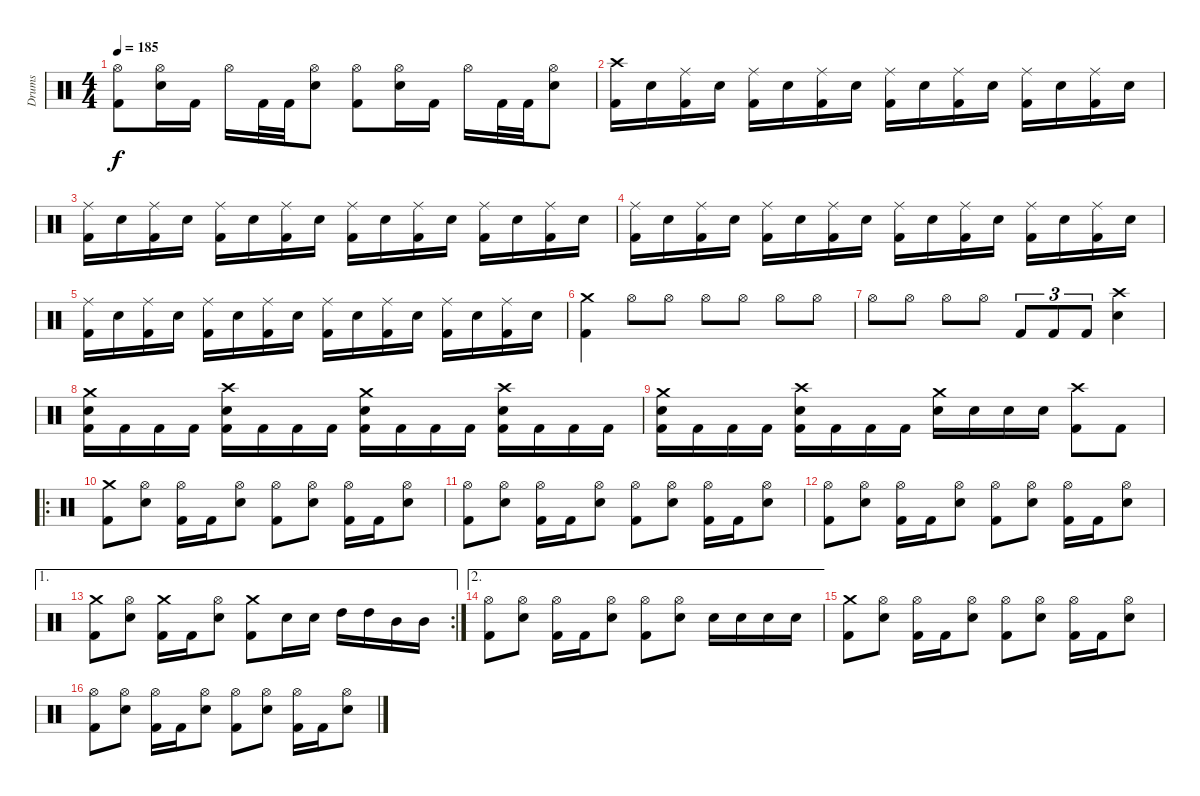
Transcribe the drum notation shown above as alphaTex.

\track ("Drums" "Drums") {instrument percussion}
\staff {score}
\articulation defaults
\ts (4 4)
\tempo 185
\clef neutral
\ks c
("Hi-Hat (open)" "Kick (hit) 2").8{dy f} ("Hi-Hat (open)" "Electric Snare (hit)").16 "Kick (hit) 2".16 "Hi-Hat (open)".16 "Kick (hit) 2".32 "Kick (hit) 2".32 ("Hi-Hat (open)" "Electric Snare (hit)").8 ("Hi-Hat (open)" "Kick (hit) 2").8 ("Hi-Hat (open)" "Electric Snare (hit)").16 "Kick (hit) 2".16 "Hi-Hat (open)".16 "Kick (hit) 2".32 "Kick (hit) 2".32 ("Hi-Hat (open)" "Electric Snare (hit)").8 |
("Crash high (hit)" "Kick (hit) 2").16 "Electric Snare (hit)".16 ("Ride (middle)" "Kick (hit) 2").16 "Electric Snare (hit)".16 ("Ride (middle)" "Kick (hit) 2").16 "Electric Snare (hit)".16 ("Ride (middle)" "Kick (hit) 2").16 "Electric Snare (hit)".16 ("Ride (middle)" "Kick (hit) 2").16 "Electric Snare (hit)".16 ("Ride (middle)" "Kick (hit) 2").16 "Electric Snare (hit)".16 ("Ride (middle)" "Kick (hit) 2").16 "Electric Snare (hit)".16 ("Ride (middle)" "Kick (hit) 2").16 "Electric Snare (hit)".16 |
("Ride (middle)" "Kick (hit) 2").16 "Electric Snare (hit)".16 ("Ride (middle)" "Kick (hit) 2").16 "Electric Snare (hit)".16 ("Ride (middle)" "Kick (hit) 2").16 "Electric Snare (hit)".16 ("Ride (middle)" "Kick (hit) 2").16 "Electric Snare (hit)".16 ("Ride (middle)" "Kick (hit) 2").16 "Electric Snare (hit)".16 ("Ride (middle)" "Kick (hit) 2").16 "Electric Snare (hit)".16 ("Ride (middle)" "Kick (hit) 2").16 "Electric Snare (hit)".16 ("Ride (middle)" "Kick (hit) 2").16 "Electric Snare (hit)".16 |
("Ride (middle)" "Kick (hit) 2").16 "Electric Snare (hit)".16 ("Ride (middle)" "Kick (hit) 2").16 "Electric Snare (hit)".16 ("Ride (middle)" "Kick (hit) 2").16 "Electric Snare (hit)".16 ("Ride (middle)" "Kick (hit) 2").16 "Electric Snare (hit)".16 ("Ride (middle)" "Kick (hit) 2").16 "Electric Snare (hit)".16 ("Ride (middle)" "Kick (hit) 2").16 "Electric Snare (hit)".16 ("Ride (middle)" "Kick (hit) 2").16 "Electric Snare (hit)".16 ("Ride (middle)" "Kick (hit) 2").16 "Electric Snare (hit)".16 |
("Ride (middle)" "Kick (hit) 2").16 "Electric Snare (hit)".16 ("Ride (middle)" "Kick (hit) 2").16 "Electric Snare (hit)".16 ("Ride (middle)" "Kick (hit) 2").16 "Electric Snare (hit)".16 ("Ride (middle)" "Kick (hit) 2").16 "Electric Snare (hit)".16 ("Ride (middle)" "Kick (hit) 2").16 "Electric Snare (hit)".16 ("Ride (middle)" "Kick (hit) 2").16 "Electric Snare (hit)".16 ("Ride (middle)" "Kick (hit) 2").16 "Electric Snare (hit)".16 ("Ride (middle)" "Kick (hit) 2").16 "Electric Snare (hit)".16 |
("Crash medium (hit)" "Kick (hit) 2").4 "Hi-Hat (open)".8 "Hi-Hat (open)".8 "Hi-Hat (open)".8 "Hi-Hat (open)".8 "Hi-Hat (open)".8 "Hi-Hat (open)".8 |
"Hi-Hat (open)".8 "Hi-Hat (open)".8 "Hi-Hat (open)".8 "Hi-Hat (open)".8 "Kick (hit) 2".8{tu (3 2)} "Kick (hit) 2".8{tu (3 2)} "Kick (hit) 2".8{tu (3 2)} ("Crash high (hit)" "Electric Snare (hit)").4 |
("Crash medium (hit)" "Electric Snare (hit)" "Kick (hit) 2").16 "Kick (hit) 2".16 "Kick (hit) 2".16 "Kick (hit) 2".16 ("Crash high (hit)" "Electric Snare (hit)" "Kick (hit) 2").16 "Kick (hit) 2".16 "Kick (hit) 2".16 "Kick (hit) 2".16 ("Crash medium (hit)" "Electric Snare (hit)" "Kick (hit) 2").16 "Kick (hit) 2".16 "Kick (hit) 2".16 "Kick (hit) 2".16 ("Crash high (hit)" "Electric Snare (hit)" "Kick (hit) 2").16 "Kick (hit) 2".16 "Kick (hit) 2".16 "Kick (hit) 2".16 |
("Crash medium (hit)" "Electric Snare (hit)" "Kick (hit) 2").16 "Kick (hit) 2".16 "Kick (hit) 2".16 "Kick (hit) 2".16 ("Crash high (hit)" "Electric Snare (hit)" "Kick (hit) 2").16 "Kick (hit) 2".16 "Kick (hit) 2".16 "Kick (hit) 2".16 ("Crash medium (hit)" "Electric Snare (hit)").16 "Electric Snare (hit)".16 "Electric Snare (hit)".16 "Electric Snare (hit)".16 ("Crash high (hit)" "Kick (hit) 2").8 "Kick (hit) 2".8 |
\ro
("Crash medium (hit)" "Kick (hit) 2").8 ("Hi-Hat (open)" "Electric Snare (hit)").8 ("Hi-Hat (open)" "Kick (hit) 2").16 "Kick (hit) 2".16 ("Hi-Hat (open)" "Electric Snare (hit)").8 ("Hi-Hat (open)" "Kick (hit) 2").8 ("Hi-Hat (open)" "Electric Snare (hit)").8 ("Hi-Hat (open)" "Kick (hit) 2").16 "Kick (hit) 2".16 ("Hi-Hat (open)" "Electric Snare (hit)").8 |
("Hi-Hat (open)" "Kick (hit) 2").8 ("Hi-Hat (open)" "Electric Snare (hit)").8 ("Hi-Hat (open)" "Kick (hit) 2").16 "Kick (hit) 2".16 ("Hi-Hat (open)" "Electric Snare (hit)").8 ("Hi-Hat (open)" "Kick (hit) 2").8 ("Hi-Hat (open)" "Electric Snare (hit)").8 ("Hi-Hat (open)" "Kick (hit) 2").16 "Kick (hit) 2".16 ("Hi-Hat (open)" "Electric Snare (hit)").8 |
("Hi-Hat (open)" "Kick (hit) 2").8 ("Hi-Hat (open)" "Electric Snare (hit)").8 ("Hi-Hat (open)" "Kick (hit) 2").16 "Kick (hit) 2".16 ("Hi-Hat (open)" "Electric Snare (hit)").8 ("Hi-Hat (open)" "Kick (hit) 2").8 ("Hi-Hat (open)" "Electric Snare (hit)").8 ("Hi-Hat (open)" "Kick (hit) 2").16 "Kick (hit) 2".16 ("Hi-Hat (open)" "Electric Snare (hit)").8 |
\ae 1
\rc 2
("Crash medium (hit)" "Kick (hit) 2").8 ("Hi-Hat (open)" "Electric Snare (hit)").8 ("Crash medium (hit)" "Kick (hit) 2").16 "Kick (hit) 2".16 ("Hi-Hat (open)" "Electric Snare (hit)").8 ("Crash medium (hit)" "Kick (hit) 2").8 "Electric Snare (hit)".16 "Electric Snare (hit)".16 "High Tom (hit)".16 "High Tom (hit)".16 "Mid Tom (hit)".16 "Mid Tom (hit)".16 |
\ae 2
("Hi-Hat (open)" "Kick (hit) 2").8 ("Hi-Hat (open)" "Electric Snare (hit)").8 ("Hi-Hat (open)" "Kick (hit) 2").16 "Kick (hit) 2".16 ("Hi-Hat (open)" "Electric Snare (hit)").8 ("Hi-Hat (open)" "Kick (hit) 2").8 ("Hi-Hat (open)" "Electric Snare (hit)").8 "Electric Snare (hit)".16 "Electric Snare (hit)".16 "Electric Snare (hit)".16 "Electric Snare (hit)".16 |
("Crash medium (hit)" "Kick (hit) 2").8 ("Hi-Hat (open)" "Electric Snare (hit)").8 ("Hi-Hat (open)" "Kick (hit) 2").16 "Kick (hit) 2".16 ("Hi-Hat (open)" "Electric Snare (hit)").8 ("Hi-Hat (open)" "Kick (hit) 2").8 ("Hi-Hat (open)" "Electric Snare (hit)").8 ("Hi-Hat (open)" "Kick (hit) 2").16 "Kick (hit) 2".16 ("Hi-Hat (open)" "Electric Snare (hit)").8 |
("Hi-Hat (open)" "Kick (hit) 2").8 ("Hi-Hat (open)" "Electric Snare (hit)").8 ("Hi-Hat (open)" "Kick (hit) 2").16 "Kick (hit) 2".16 ("Hi-Hat (open)" "Electric Snare (hit)").8 ("Hi-Hat (open)" "Kick (hit) 2").8 ("Hi-Hat (open)" "Electric Snare (hit)").8 ("Hi-Hat (open)" "Kick (hit) 2").16 "Kick (hit) 2".16 ("Hi-Hat (open)" "Electric Snare (hit)").8
